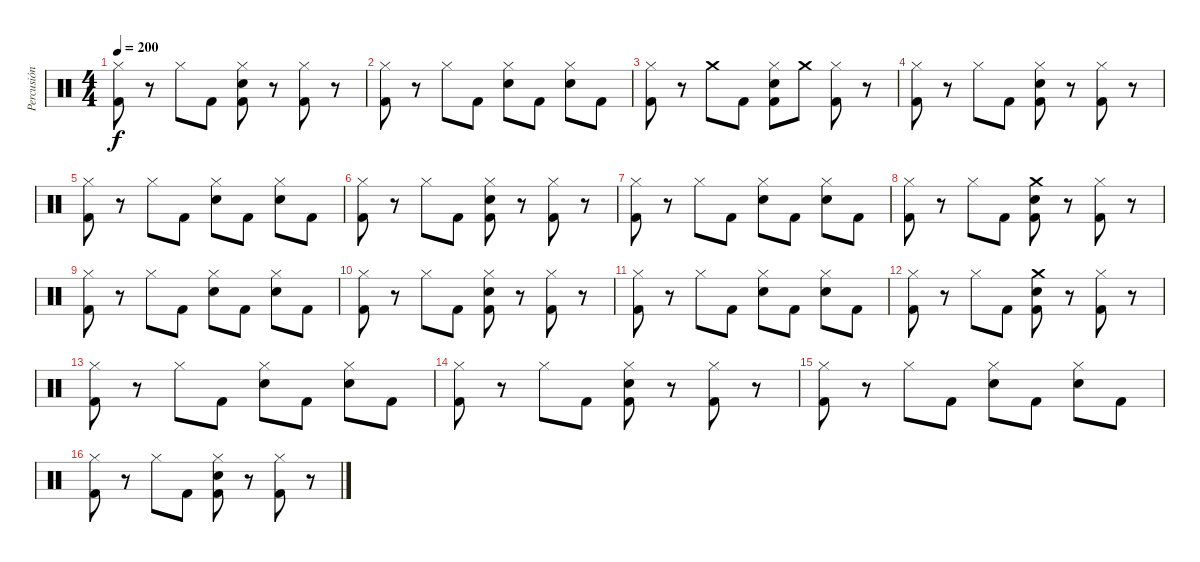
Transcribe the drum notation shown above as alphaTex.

\track ("Percusión" "Percusión") {instrument percussion}
\staff {score}
\articulation defaults
\ts (4 4)
\tempo 200
\clef neutral
\ks c
("Hi-Hat (closed)" "Kick (hit) 2").8{dy f} r.8 "Hi-Hat (closed)".8 "Kick (hit) 2".8 ("Hi-Hat (closed)" "Snare (hit) 2" "Kick (hit) 2").8 r.8 ("Hi-Hat (closed)" "Kick (hit) 2").8 r.8 |
("Hi-Hat (closed)" "Kick (hit) 2").8 r.8 "Hi-Hat (closed)".8 "Kick (hit) 2".8 ("Hi-Hat (closed)" "Snare (hit) 2").8 "Kick (hit) 2".8 ("Hi-Hat (closed)" "Snare (hit) 2").8 "Kick (hit) 2".8 |
("Hi-Hat (closed)" "Kick (hit) 2").8 r.8 "Crash medium (hit)".8 "Kick (hit) 2".8 ("Hi-Hat (closed)" "Snare (hit) 2" "Kick (hit) 2").8 "Crash medium (hit)".8 ("Hi-Hat (closed)" "Kick (hit) 2").8 r.8 |
("Hi-Hat (closed)" "Kick (hit) 2").8 r.8 "Hi-Hat (closed)".8 "Kick (hit) 2".8 ("Hi-Hat (closed)" "Snare (hit) 2" "Kick (hit) 2").8 r.8 ("Hi-Hat (closed)" "Kick (hit) 2").8 r.8 |
("Hi-Hat (closed)" "Kick (hit) 2").8 r.8 "Hi-Hat (closed)".8 "Kick (hit) 2".8 ("Hi-Hat (closed)" "Snare (hit) 2").8 "Kick (hit) 2".8 ("Hi-Hat (closed)" "Snare (hit) 2").8 "Kick (hit) 2".8 |
("Hi-Hat (closed)" "Kick (hit) 2").8 r.8 "Hi-Hat (closed)".8 "Kick (hit) 2".8 ("Hi-Hat (closed)" "Snare (hit) 2" "Kick (hit) 2").8 r.8 ("Hi-Hat (closed)" "Kick (hit) 2").8 r.8 |
("Hi-Hat (closed)" "Kick (hit) 2").8 r.8 "Hi-Hat (closed)".8 "Kick (hit) 2".8 ("Hi-Hat (closed)" "Snare (hit) 2").8 "Kick (hit) 2".8 ("Hi-Hat (closed)" "Snare (hit) 2").8 "Kick (hit) 2".8 |
("Hi-Hat (closed)" "Kick (hit) 2").8 r.8 "Hi-Hat (closed)".8 "Kick (hit) 2".8 ("Crash medium (hit)" "Snare (hit) 2" "Kick (hit) 2").8 r.8 ("Hi-Hat (closed)" "Kick (hit) 2").8 r.8 |
("Hi-Hat (closed)" "Kick (hit) 2").8 r.8 "Hi-Hat (closed)".8 "Kick (hit) 2".8 ("Hi-Hat (closed)" "Snare (hit) 2").8 "Kick (hit) 2".8 ("Hi-Hat (closed)" "Snare (hit) 2").8 "Kick (hit) 2".8 |
("Hi-Hat (closed)" "Kick (hit) 2").8 r.8 "Hi-Hat (closed)".8 "Kick (hit) 2".8 ("Hi-Hat (closed)" "Snare (hit) 2" "Kick (hit) 2").8 r.8 ("Hi-Hat (closed)" "Kick (hit) 2").8 r.8 |
("Hi-Hat (closed)" "Kick (hit) 2").8 r.8 "Hi-Hat (closed)".8 "Kick (hit) 2".8 ("Hi-Hat (closed)" "Snare (hit) 2").8 "Kick (hit) 2".8 ("Hi-Hat (closed)" "Snare (hit) 2").8 "Kick (hit) 2".8 |
("Hi-Hat (closed)" "Kick (hit) 2").8 r.8 "Hi-Hat (closed)".8 "Kick (hit) 2".8 ("Crash medium (hit)" "Snare (hit) 2" "Kick (hit) 2").8 r.8 ("Hi-Hat (closed)" "Kick (hit) 2").8 r.8 |
("Hi-Hat (closed)" "Kick (hit) 2").8 r.8 "Hi-Hat (closed)".8 "Kick (hit) 2".8 ("Hi-Hat (closed)" "Snare (hit) 2").8 "Kick (hit) 2".8 ("Hi-Hat (closed)" "Snare (hit) 2").8 "Kick (hit) 2".8 |
("Hi-Hat (closed)" "Kick (hit) 2").8 r.8 "Hi-Hat (closed)".8 "Kick (hit) 2".8 ("Hi-Hat (closed)" "Snare (hit) 2" "Kick (hit) 2").8 r.8 ("Hi-Hat (closed)" "Kick (hit) 2").8 r.8 |
("Hi-Hat (closed)" "Kick (hit) 2").8 r.8 "Hi-Hat (closed)".8 "Kick (hit) 2".8 ("Hi-Hat (closed)" "Snare (hit) 2").8 "Kick (hit) 2".8 ("Hi-Hat (closed)" "Snare (hit) 2").8 "Kick (hit) 2".8 |
("Hi-Hat (closed)" "Kick (hit) 2").8 r.8 "Hi-Hat (closed)".8 "Kick (hit) 2".8 ("Hi-Hat (closed)" "Snare (hit) 2" "Kick (hit) 2").8 r.8 ("Hi-Hat (closed)" "Kick (hit) 2").8 r.8
